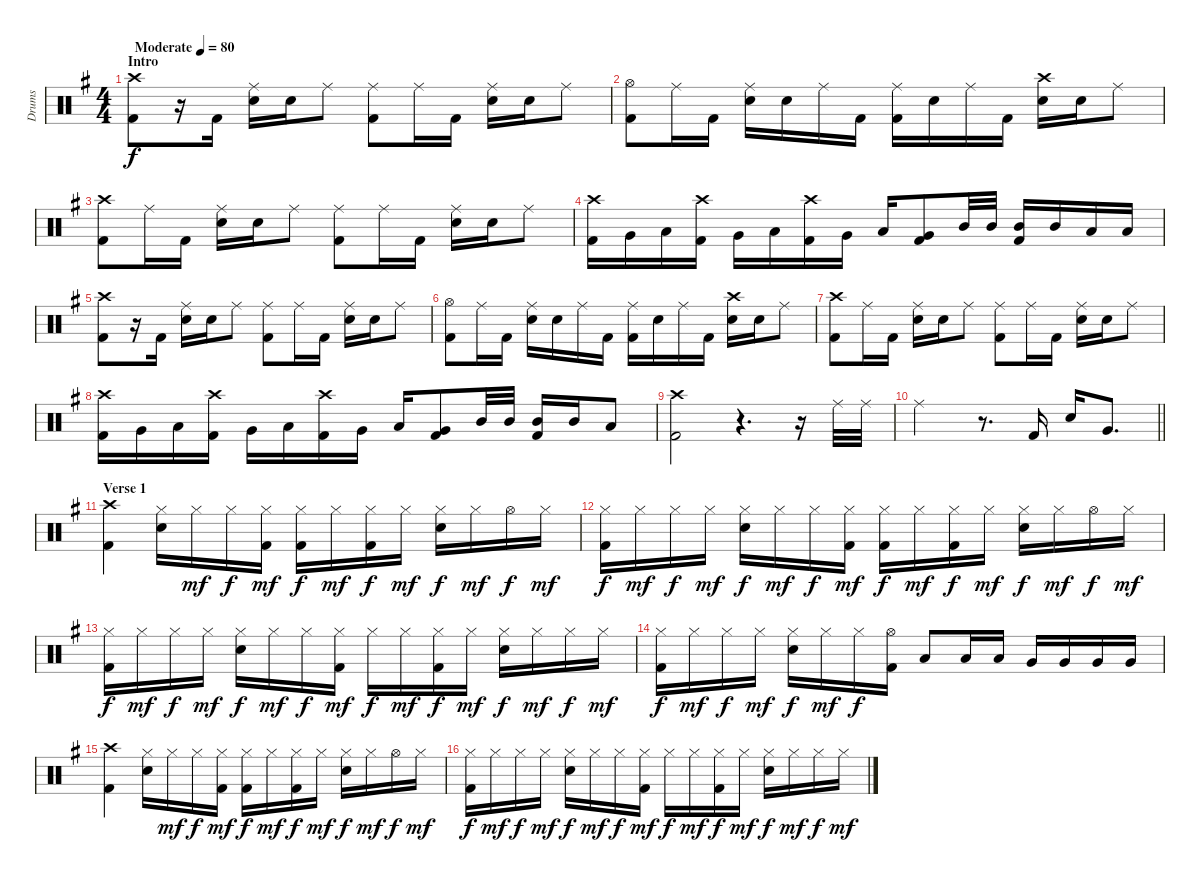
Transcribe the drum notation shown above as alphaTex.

\track ("Drums" "Drums") {instrument percussion}
\staff {score}
\articulation defaults
\ts (4 4)
\section ("" "Intro")
\tempo (80 "Moderate")
\clef neutral
\ks g
("Crash high (hit)" "Kick (hit) 2").8{dy f} r.16 "Kick (hit) 2".16 ("Ride (middle)" "Electric Snare (hit)").16 "Electric Snare (hit)".16 "Ride (middle)".8 ("Ride (middle)" "Kick (hit) 2").8 "Ride (middle)".16 "Kick (hit) 2".16 ("Ride (middle)" "Electric Snare (hit)").16 "Electric Snare (hit)".16 "Ride (middle)".8 |
("Hi-Hat (open)" "Kick (hit) 2").8 "Ride (middle)".16 "Kick (hit) 2".16 ("Ride (middle)" "Electric Snare (hit)").16 "Electric Snare (hit)".16 "Ride (middle)".16 "Kick (hit) 2".16 ("Ride (middle)" "Kick (hit) 2").16 "Electric Snare (hit)".16 "Ride (middle)".16 "Kick (hit) 2".16 ("Crash high (hit)" "Electric Snare (hit)").16 "Electric Snare (hit)".16 "Ride (middle)".8 |
("Crash high (hit)" "Kick (hit) 2").8 "Ride (middle)".16 "Kick (hit) 2".16 ("Ride (middle)" "Electric Snare (hit)").16 "Electric Snare (hit)".16 "Ride (middle)".8 ("Ride (middle)" "Kick (hit) 2").8 "Ride (middle)".16 "Kick (hit) 2".16 ("Ride (middle)" "Electric Snare (hit)").16 "Electric Snare (hit)".16 "Ride (middle)".8 |
("Crash high (hit)" "Kick (hit) 2").16 "Very Low Tom (hit)".16 "Low Tom (hit)".16 ("Crash high (hit)" "Kick (hit) 2").16 "Very Low Tom (hit)".16 "Low Tom (hit)".16 ("Crash high (hit)" "Kick (hit) 2").16 "Very Low Tom (hit)".16 "Low Tom (hit)".16 ("Very Low Tom (hit)" "Kick (hit) 2").8 "Mid Tom (hit)".32 "Mid Tom (hit)".32 ("Mid Tom (hit)" "Kick (hit) 2").16 "Mid Tom (hit)".16 "Low Tom (hit)".16 "Low Tom (hit)".16 |
("Crash high (hit)" "Kick (hit) 2").8 r.16 "Kick (hit) 2".16 ("Ride (middle)" "Electric Snare (hit)").16 "Electric Snare (hit)".16 "Ride (middle)".8 ("Ride (middle)" "Kick (hit) 2").8 "Ride (middle)".16 "Kick (hit) 2".16 ("Ride (middle)" "Electric Snare (hit)").16 "Electric Snare (hit)".16 "Ride (middle)".8 |
("Hi-Hat (open)" "Kick (hit) 2").8 "Ride (middle)".16 "Kick (hit) 2".16 ("Ride (middle)" "Electric Snare (hit)").16 "Electric Snare (hit)".16 "Ride (middle)".16 "Kick (hit) 2".16 ("Ride (middle)" "Kick (hit) 2").16 "Electric Snare (hit)".16 "Ride (middle)".16 "Kick (hit) 2".16 ("Crash high (hit)" "Electric Snare (hit)").16 "Electric Snare (hit)".16 "Ride (middle)".8 |
("Crash high (hit)" "Kick (hit) 2").8 "Ride (middle)".16 "Kick (hit) 2".16 ("Ride (middle)" "Electric Snare (hit)").16 "Electric Snare (hit)".16 "Ride (middle)".8 ("Ride (middle)" "Kick (hit) 2").8 "Ride (middle)".16 "Kick (hit) 2".16 ("Ride (middle)" "Electric Snare (hit)").16 "Electric Snare (hit)".16 "Ride (middle)".8 |
("Crash high (hit)" "Kick (hit) 2").16 "Very Low Tom (hit)".16 "Low Tom (hit)".16 ("Crash high (hit)" "Kick (hit) 2").16 "Very Low Tom (hit)".16 "Low Tom (hit)".16 ("Crash high (hit)" "Kick (hit) 2").16 "Very Low Tom (hit)".16 "Low Tom (hit)".16 ("Very Low Tom (hit)" "Kick (hit) 2").8 "Mid Tom (hit)".32 "Mid Tom (hit)".32 ("Mid Tom (hit)" "Kick (hit) 2").16 "Mid Tom (hit)".16 "Low Tom (hit)".8 |
("Crash high (hit)" "Kick (hit) 2").2 r.4{d} r.16 "Ride (middle)".32 "Ride (middle)".32 |
\barLineRight lightlight "Ride (middle)".2
r.8{d} "Kick (hit) 2".16 "Electric Snare (hit)".16 "Very Low Tom (hit)".8{d} |
\section ("" "Verse 1")
("Crash high (hit)" "Kick (hit) 2").4 ("Hi-Hat (closed)" "Electric Snare (hit)").16 "Hi-Hat (closed)".16{dy mf} "Hi-Hat (closed)".16{dy f} ("Hi-Hat (closed)" "Kick (hit) 2").16{dy mf} ("Hi-Hat (closed)" "Kick (hit) 2").16{dy f} "Hi-Hat (closed)".16{dy mf} ("Hi-Hat (closed)" "Kick (hit) 2").16{dy f} "Hi-Hat (closed)".16{dy mf} ("Hi-Hat (closed)" "Electric Snare (hit)").16{dy f} "Hi-Hat (closed)".16{dy mf} "Hi-Hat (open)".16{dy f} "Hi-Hat (closed)".16{dy mf} |
("Hi-Hat (closed)" "Kick (hit) 2").16{dy f} "Hi-Hat (closed)".16{dy mf} "Hi-Hat (closed)".16{dy f} "Hi-Hat (closed)".16{dy mf} ("Hi-Hat (closed)" "Electric Snare (hit)").16{dy f} "Hi-Hat (closed)".16{dy mf} "Hi-Hat (closed)".16{dy f} ("Hi-Hat (closed)" "Kick (hit) 2").16{dy mf} ("Hi-Hat (closed)" "Kick (hit) 2").16{dy f} "Hi-Hat (closed)".16{dy mf} ("Hi-Hat (closed)" "Kick (hit) 2").16{dy f} "Hi-Hat (closed)".16{dy mf} ("Hi-Hat (closed)" "Electric Snare (hit)").16{dy f} "Hi-Hat (closed)".16{dy mf} "Hi-Hat (open)".16{dy f} "Hi-Hat (closed)".16{dy mf} |
("Hi-Hat (closed)" "Kick (hit) 2").16{dy f} "Hi-Hat (closed)".16{dy mf} "Hi-Hat (closed)".16{dy f} "Hi-Hat (closed)".16{dy mf} ("Hi-Hat (closed)" "Electric Snare (hit)").16{dy f} "Hi-Hat (closed)".16{dy mf} "Hi-Hat (closed)".16{dy f} ("Hi-Hat (closed)" "Kick (hit) 2").16{dy mf} "Hi-Hat (closed)".16{dy f} "Hi-Hat (closed)".16{dy mf} ("Hi-Hat (closed)" "Kick (hit) 2").16{dy f} "Hi-Hat (closed)".16{dy mf} ("Hi-Hat (closed)" "Electric Snare (hit)").16{dy f} "Hi-Hat (closed)".16{dy mf} "Hi-Hat (closed)".16{dy f} "Hi-Hat (closed)".16{dy mf} |
("Hi-Hat (closed)" "Kick (hit) 2").16{dy f} "Hi-Hat (closed)".16{dy mf} "Hi-Hat (closed)".16{dy f} "Hi-Hat (closed)".16{dy mf} ("Hi-Hat (closed)" "Electric Snare (hit)").16{dy f} "Hi-Hat (closed)".16{dy mf} "Hi-Hat (closed)".16{dy f} ("Hi-Hat (open)" "Kick (hit) 2").16 "Low Tom (hit)".8 "Low Tom (hit)".16 "Low Tom (hit)".16 "Very Low Tom (hit)".16 "Very Low Tom (hit)".16 "Very Low Tom (hit)".16 "Very Low Tom (hit)".16 |
("Crash high (hit)" "Kick (hit) 2").4 ("Hi-Hat (closed)" "Electric Snare (hit)").16 "Hi-Hat (closed)".16{dy mf} "Hi-Hat (closed)".16{dy f} ("Hi-Hat (closed)" "Kick (hit) 2").16{dy mf} ("Hi-Hat (closed)" "Kick (hit) 2").16{dy f} "Hi-Hat (closed)".16{dy mf} ("Hi-Hat (closed)" "Kick (hit) 2").16{dy f} "Hi-Hat (closed)".16{dy mf} ("Hi-Hat (closed)" "Electric Snare (hit)").16{dy f} "Hi-Hat (closed)".16{dy mf} "Hi-Hat (open)".16{dy f} "Hi-Hat (closed)".16{dy mf} |
("Hi-Hat (closed)" "Kick (hit) 2").16{dy f} "Hi-Hat (closed)".16{dy mf} "Hi-Hat (closed)".16{dy f} "Hi-Hat (closed)".16{dy mf} ("Hi-Hat (closed)" "Electric Snare (hit)").16{dy f} "Hi-Hat (closed)".16{dy mf} "Hi-Hat (closed)".16{dy f} ("Hi-Hat (closed)" "Kick (hit) 2").16{dy mf} "Hi-Hat (closed)".16{dy f} "Hi-Hat (closed)".16{dy mf} ("Hi-Hat (closed)" "Kick (hit) 2").16{dy f} "Hi-Hat (closed)".16{dy mf} ("Hi-Hat (closed)" "Electric Snare (hit)").16{dy f} "Hi-Hat (closed)".16{dy mf} "Hi-Hat (closed)".16{dy f} "Hi-Hat (closed)".16{dy mf}
